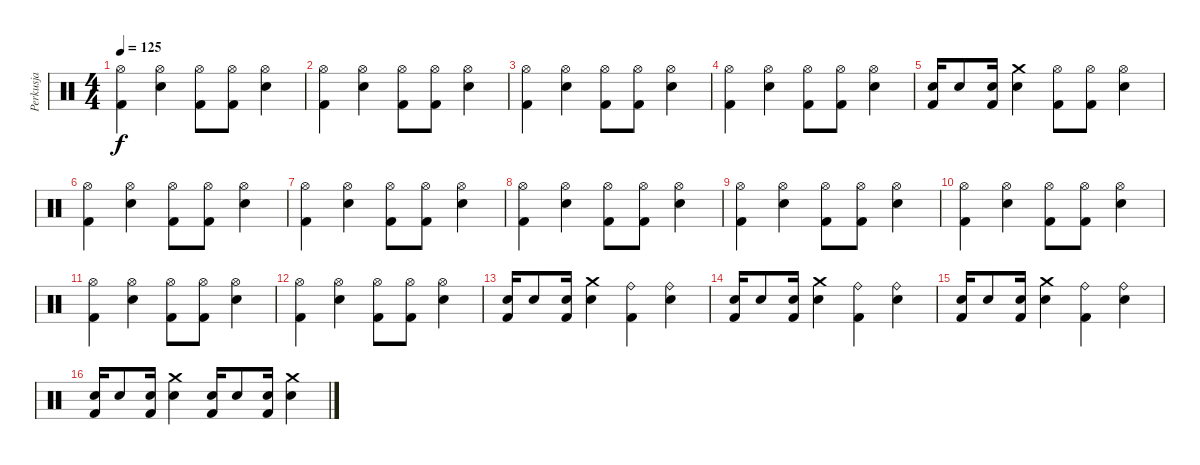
\track ("Perkusja" "Perkusja") {instrument percussion}
\staff {score}
\articulation defaults
\ts (4 4)
\tempo 125
\clef neutral
\ks c
("Hi-Hat (open)" "Kick (hit) 2").4{dy f} ("Hi-Hat (open)" "Electric Snare (hit)").4 ("Hi-Hat (open)" "Kick (hit) 2").8 ("Hi-Hat (open)" "Kick (hit) 2").8 ("Hi-Hat (open)" "Electric Snare (hit)").4 |
("Hi-Hat (open)" "Kick (hit) 2").4 ("Hi-Hat (open)" "Electric Snare (hit)").4 ("Hi-Hat (open)" "Kick (hit) 2").8 ("Hi-Hat (open)" "Kick (hit) 2").8 ("Hi-Hat (open)" "Electric Snare (hit)").4 |
("Hi-Hat (open)" "Kick (hit) 2").4 ("Hi-Hat (open)" "Electric Snare (hit)").4 ("Hi-Hat (open)" "Kick (hit) 2").8 ("Hi-Hat (open)" "Kick (hit) 2").8 ("Hi-Hat (open)" "Electric Snare (hit)").4 |
("Hi-Hat (open)" "Kick (hit) 2").4 ("Hi-Hat (open)" "Electric Snare (hit)").4 ("Hi-Hat (open)" "Kick (hit) 2").8 ("Hi-Hat (open)" "Kick (hit) 2").8 ("Hi-Hat (open)" "Electric Snare (hit)").4 |
("Electric Snare (hit)" "Kick (hit) 2").16 "Electric Snare (hit)".8 ("Electric Snare (hit)" "Kick (hit) 2").16 ("Crash medium (hit)" "Electric Snare (hit)").4 ("Hi-Hat (open)" "Kick (hit) 2").8 ("Hi-Hat (open)" "Kick (hit) 2").8 ("Hi-Hat (open)" "Electric Snare (hit)").4 |
("Hi-Hat (open)" "Kick (hit) 2").4 ("Hi-Hat (open)" "Electric Snare (hit)").4 ("Hi-Hat (open)" "Kick (hit) 2").8 ("Hi-Hat (open)" "Kick (hit) 2").8 ("Hi-Hat (open)" "Electric Snare (hit)").4 |
("Hi-Hat (open)" "Kick (hit) 2").4 ("Hi-Hat (open)" "Electric Snare (hit)").4 ("Hi-Hat (open)" "Kick (hit) 2").8 ("Hi-Hat (open)" "Kick (hit) 2").8 ("Hi-Hat (open)" "Electric Snare (hit)").4 |
("Hi-Hat (open)" "Kick (hit) 2").4 ("Hi-Hat (open)" "Electric Snare (hit)").4 ("Hi-Hat (open)" "Kick (hit) 2").8 ("Hi-Hat (open)" "Kick (hit) 2").8 ("Hi-Hat (open)" "Electric Snare (hit)").4 |
("Hi-Hat (open)" "Kick (hit) 2").4 ("Hi-Hat (open)" "Electric Snare (hit)").4 ("Hi-Hat (open)" "Kick (hit) 2").8 ("Hi-Hat (open)" "Kick (hit) 2").8 ("Hi-Hat (open)" "Electric Snare (hit)").4 |
("Hi-Hat (open)" "Kick (hit) 2").4 ("Hi-Hat (open)" "Electric Snare (hit)").4 ("Hi-Hat (open)" "Kick (hit) 2").8 ("Hi-Hat (open)" "Kick (hit) 2").8 ("Hi-Hat (open)" "Electric Snare (hit)").4 |
("Hi-Hat (open)" "Kick (hit) 2").4 ("Hi-Hat (open)" "Electric Snare (hit)").4 ("Hi-Hat (open)" "Kick (hit) 2").8 ("Hi-Hat (open)" "Kick (hit) 2").8 ("Hi-Hat (open)" "Electric Snare (hit)").4 |
("Hi-Hat (open)" "Kick (hit) 2").4 ("Hi-Hat (open)" "Electric Snare (hit)").4 ("Hi-Hat (open)" "Kick (hit) 2").8 ("Hi-Hat (open)" "Kick (hit) 2").8 ("Hi-Hat (open)" "Electric Snare (hit)").4 |
("Electric Snare (hit)" "Kick (hit) 2").16 "Electric Snare (hit)".8 ("Electric Snare (hit)" "Kick (hit) 2").16 ("Crash medium (hit)" "Electric Snare (hit)").4 ("Ride (bell)" "Kick (hit) 2").4 ("Ride (bell)" "Electric Snare (hit)").4 |
("Electric Snare (hit)" "Kick (hit) 2").16 "Electric Snare (hit)".8 ("Electric Snare (hit)" "Kick (hit) 2").16 ("Crash medium (hit)" "Electric Snare (hit)").4 ("Ride (bell)" "Kick (hit) 2").4 ("Ride (bell)" "Electric Snare (hit)").4 |
("Electric Snare (hit)" "Kick (hit) 2").16 "Electric Snare (hit)".8 ("Electric Snare (hit)" "Kick (hit) 2").16 ("Crash medium (hit)" "Electric Snare (hit)").4 ("Ride (bell)" "Kick (hit) 2").4 ("Ride (bell)" "Electric Snare (hit)").4 |
("Electric Snare (hit)" "Kick (hit) 2").16 "Electric Snare (hit)".8 ("Electric Snare (hit)" "Kick (hit) 2").16 ("Crash medium (hit)" "Electric Snare (hit)").4 ("Electric Snare (hit)" "Kick (hit) 2").16 "Electric Snare (hit)".8 ("Electric Snare (hit)" "Kick (hit) 2").16 ("Crash medium (hit)" "Electric Snare (hit)").4
